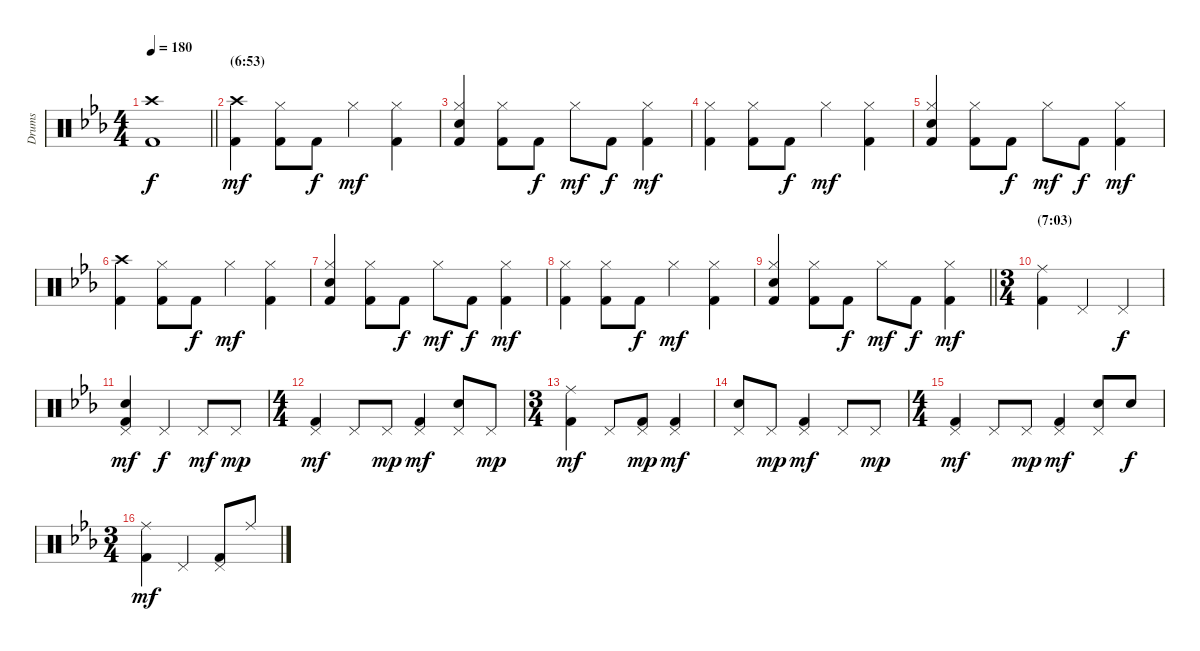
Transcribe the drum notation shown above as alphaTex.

\track ("Drums" "Drums") {instrument percussion}
\staff {score}
\articulation defaults
\ts (4 4)
\tempo 180
\clef neutral
\barLineRight lightlight
\ks eb
("Crash high (hit)" "Kick (hit) 2").1{dy f} |
\section ("" "(6:53)")
("Crash high (hit)" "Kick (hit) 2").4{dy mf} ("Hi-Hat (closed)" "Kick (hit) 2").8 "Kick (hit) 2".8{dy f} "Hi-Hat (closed)".4{dy mf} ("Hi-Hat (closed)" "Kick (hit) 2").4 |
("Hi-Hat (closed)" "Electric Snare (hit)" "Kick (hit) 2").4 ("Hi-Hat (closed)" "Kick (hit) 2").8 "Kick (hit) 2".8{dy f} "Hi-Hat (closed)".8{dy mf} "Kick (hit) 2".8{dy f} ("Hi-Hat (closed)" "Kick (hit) 2").4{dy mf} |
("Hi-Hat (closed)" "Kick (hit) 2").4 ("Hi-Hat (closed)" "Kick (hit) 2").8 "Kick (hit) 2".8{dy f} "Hi-Hat (closed)".4{dy mf} ("Hi-Hat (closed)" "Kick (hit) 2").4 |
("Hi-Hat (closed)" "Electric Snare (hit)" "Kick (hit) 2").4 ("Hi-Hat (closed)" "Kick (hit) 2").8 "Kick (hit) 2".8{dy f} "Hi-Hat (closed)".8{dy mf} "Kick (hit) 2".8{dy f} ("Hi-Hat (closed)" "Kick (hit) 2").4{dy mf} |
("Crash high (hit)" "Kick (hit) 2").4 ("Hi-Hat (closed)" "Kick (hit) 2").8 "Kick (hit) 2".8{dy f} "Hi-Hat (closed)".4{dy mf} ("Hi-Hat (closed)" "Kick (hit) 2").4 |
("Hi-Hat (closed)" "Electric Snare (hit)" "Kick (hit) 2").4 ("Hi-Hat (closed)" "Kick (hit) 2").8 "Kick (hit) 2".8{dy f} "Hi-Hat (closed)".8{dy mf} "Kick (hit) 2".8{dy f} ("Hi-Hat (closed)" "Kick (hit) 2").4{dy mf} |
("Hi-Hat (closed)" "Kick (hit) 2").4 ("Hi-Hat (closed)" "Kick (hit) 2").8 "Kick (hit) 2".8{dy f} "Hi-Hat (closed)".4{dy mf} ("Hi-Hat (closed)" "Kick (hit) 2").4 |
\barLineRight lightlight
("Hi-Hat (closed)" "Electric Snare (hit)" "Kick (hit) 2").4 ("Hi-Hat (closed)" "Kick (hit) 2").8 "Kick (hit) 2".8{dy f} "Hi-Hat (closed)".8{dy mf} "Kick (hit) 2".8{dy f} ("Hi-Hat (closed)" "Kick (hit) 2").4{dy mf} |
\ts (3 4)
\section ("" "(7:03)")
("Ride (middle)" "Kick (hit) 2").4 "Pedal Hi-Hat (hit)".4 "Pedal Hi-Hat (hit)".4{dy f} |
("Pedal Hi-Hat (hit)" "Electric Snare (hit)" "Kick (hit) 2").4{dy mf} "Pedal Hi-Hat (hit)".4{dy f} "Pedal Hi-Hat (hit)".8{dy mf} "Pedal Hi-Hat (hit)".8{dy mp} |
\ts (4 4)
("Pedal Hi-Hat (hit)" "Kick (hit) 2").4{dy mf} "Pedal Hi-Hat (hit)".8 "Pedal Hi-Hat (hit)".8{dy mp} ("Pedal Hi-Hat (hit)" "Kick (hit) 2").4{dy mf} ("Pedal Hi-Hat (hit)" "Electric Snare (hit)").8 "Pedal Hi-Hat (hit)".8{dy mp} |
\ts (3 4)
("Ride (middle)" "Kick (hit) 2").4{dy mf} "Pedal Hi-Hat (hit)".8 ("Pedal Hi-Hat (hit)" "Kick (hit) 2").8{dy mp} ("Pedal Hi-Hat (hit)" "Kick (hit) 2").4{dy mf} |
("Pedal Hi-Hat (hit)" "Electric Snare (hit)").8 "Pedal Hi-Hat (hit)".8{dy mp} ("Pedal Hi-Hat (hit)" "Kick (hit) 2").4{dy mf} "Pedal Hi-Hat (hit)".8 "Pedal Hi-Hat (hit)".8{dy mp} |
\ts (4 4)
("Pedal Hi-Hat (hit)" "Kick (hit) 2").4{dy mf} "Pedal Hi-Hat (hit)".8 "Pedal Hi-Hat (hit)".8{dy mp} ("Pedal Hi-Hat (hit)" "Kick (hit) 2").4{dy mf} ("Pedal Hi-Hat (hit)" "Electric Snare (hit)").8 "Electric Snare (hit)".8{dy f} |
\ts (3 4)
("Ride (middle)" "Kick (hit) 2").4{dy mf} "Pedal Hi-Hat (hit)".4 ("Pedal Hi-Hat (hit)" "Kick (hit) 2").8 "Ride (middle)".8
